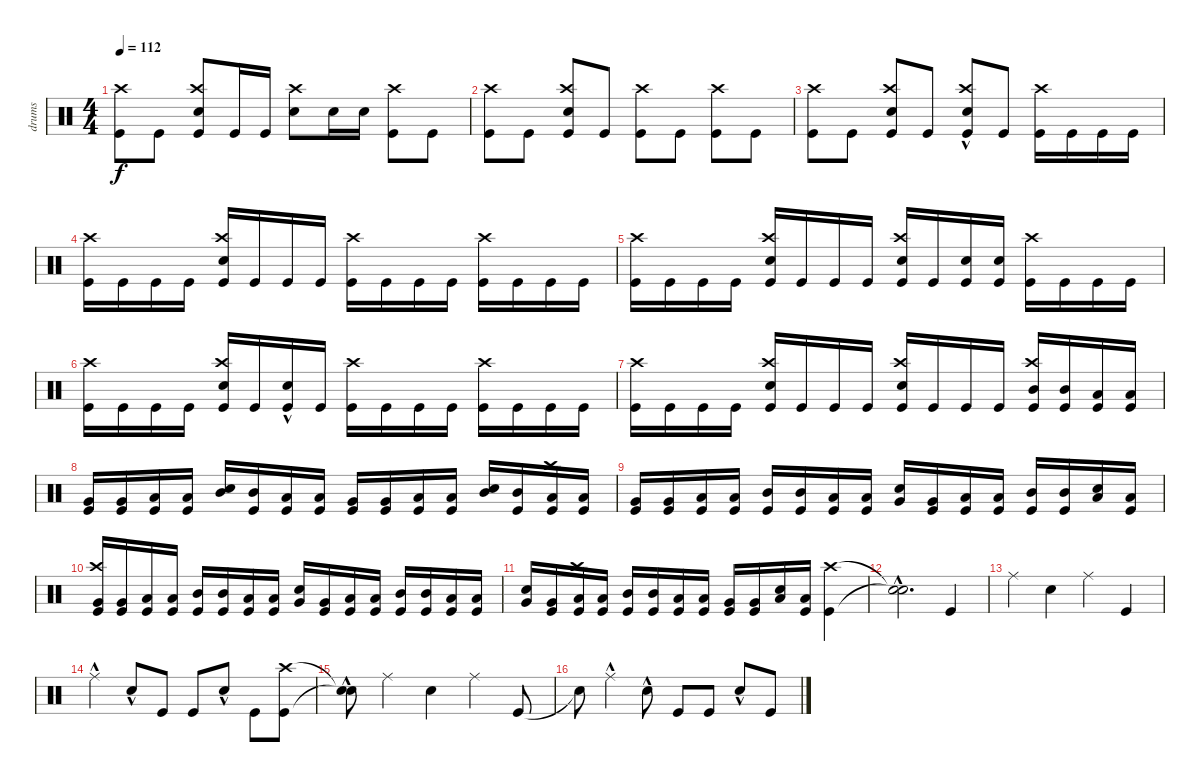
\track ("drums" "drums") {instrument percussion}
\staff {score}
\articulation defaults
\ts (4 4)
\tempo 112
\clef neutral
\ks c
("Kick (hit)" "Crash high (hit)").8{dy f} "Kick (hit)".8 ("Kick (hit)" "Snare (hit) 2" "Crash high (hit)").8 "Kick (hit)".16 "Kick (hit)".16 ("Snare (hit) 2" "Crash high (hit)").8 "Snare (hit) 2".16 "Snare (hit) 2".16 ("Kick (hit)" "Crash high (hit)").8 "Kick (hit)".8 |
("Kick (hit)" "Crash high (hit)").8 "Kick (hit)".8 ("Kick (hit)" "Snare (hit) 2" "Crash high (hit)").8 "Kick (hit)".8 ("Kick (hit)" "Crash high (hit)").8 "Kick (hit)".8 ("Kick (hit)" "Crash high (hit)").8 "Kick (hit)".8 |
("Kick (hit)" "Crash high (hit)").8 "Kick (hit)".8 ("Kick (hit)" "Snare (hit) 2" "Crash high (hit)").8 "Kick (hit)".8 ("Kick (hit)" "Snare (hit) 2"{hac} "Crash high (hit)").8 "Kick (hit)".8 ("Kick (hit)" "Crash high (hit)").16 "Kick (hit)".16 "Kick (hit)".16 "Kick (hit)".16 |
("Kick (hit)" "Crash high (hit)").16 "Kick (hit)".16 "Kick (hit)".16 "Kick (hit)".16 ("Kick (hit)" "Snare (hit) 2" "Crash high (hit)").16 "Kick (hit)".16 "Kick (hit)".16 "Kick (hit)".16 ("Kick (hit)" "Crash high (hit)").16 "Kick (hit)".16 "Kick (hit)".16 "Kick (hit)".16 ("Kick (hit)" "Crash high (hit)").16 "Kick (hit)".16 "Kick (hit)".16 "Kick (hit)".16 |
("Kick (hit)" "Crash high (hit)").16 "Kick (hit)".16 "Kick (hit)".16 "Kick (hit)".16 ("Kick (hit)" "Snare (hit) 2" "Crash high (hit)").16 "Kick (hit)".16 "Kick (hit)".16 "Kick (hit)".16 ("Kick (hit)" "Snare (hit) 2" "Crash high (hit)").16 "Kick (hit)".16 ("Kick (hit)" "Snare (hit) 2").16 ("Kick (hit)" "Snare (hit) 2").16 ("Kick (hit)" "Crash high (hit)").16 "Kick (hit)".16 "Kick (hit)".16 "Kick (hit)".16 |
("Kick (hit)" "Crash high (hit)").16 "Kick (hit)".16 "Kick (hit)".16 "Kick (hit)".16 ("Kick (hit)" "Snare (hit) 2" "Crash high (hit)").16 "Kick (hit)".16 ("Kick (hit)" "Snare (hit) 2"{hac}).16 "Kick (hit)".16 ("Kick (hit)" "Crash high (hit)").16 "Kick (hit)".16 "Kick (hit)".16 "Kick (hit)".16 ("Kick (hit)" "Crash high (hit)").16 "Kick (hit)".16 "Kick (hit)".16 "Kick (hit)".16 |
("Kick (hit)" "Crash high (hit)").16 "Kick (hit)".16 "Kick (hit)".16 "Kick (hit)".16 ("Kick (hit)" "Snare (hit) 2" "Crash high (hit)").16 "Kick (hit)".16 "Kick (hit)".16 "Kick (hit)".16 ("Kick (hit)" "Snare (hit) 2" "Crash high (hit)").16 "Kick (hit)".16 "Kick (hit)".16 "Kick (hit)".16 ("Kick (hit)" "Mid Tom (hit)" "Crash high (hit)").16 ("Kick (hit)" "Mid Tom (hit)").16 ("Kick (hit)" "Low Tom (hit)").16 ("Kick (hit)" "Low Tom (hit)").16 |
("Kick (hit)" "Very Low Tom (hit)").16 ("Kick (hit)" "Very Low Tom (hit)").16 ("Kick (hit)" "Low Floor Tom (hit)").16 ("Kick (hit)" "Low Floor Tom (hit)").16 ("Snare (hit) 2" "Mid Tom (hit)").16 ("Kick (hit)" "Mid Tom (hit)").16 ("Kick (hit)" "Low Tom (hit)").16 ("Kick (hit)" "Low Tom (hit)").16 ("Kick (hit)" "Very Low Tom (hit)").16 ("Kick (hit)" "Very Low Tom (hit)").16 ("Kick (hit)" "Low Floor Tom (hit)").16 ("Kick (hit)" "Low Floor Tom (hit)").16 ("Snare (hit) 2" "Mid Tom (hit)").16 ("Kick (hit)" "Mid Tom (hit)").16 ("Kick (hit)" "Low Tom (hit)" "Crash high (hit)").16 ("Kick (hit)" "Low Tom (hit)").16 |
("Kick (hit)" "Very Low Tom (hit)").16 ("Kick (hit)" "Very Low Tom (hit)").16 ("Kick (hit)" "Low Floor Tom (hit)").16 ("Kick (hit)" "Low Floor Tom (hit)").16 ("Kick (hit)" "Mid Tom (hit)").16 ("Kick (hit)" "Mid Tom (hit)").16 ("Kick (hit)" "Low Tom (hit)").16 ("Kick (hit)" "Low Tom (hit)").16 ("Snare (hit) 2" "Very Low Tom (hit)").16 ("Kick (hit)" "Very Low Tom (hit)").16 ("Kick (hit)" "Low Floor Tom (hit)").16 ("Kick (hit)" "Low Floor Tom (hit)").16 ("Kick (hit)" "Mid Tom (hit)").16 ("Kick (hit)" "Mid Tom (hit)").16 ("Snare (hit) 2" "Low Tom (hit)").16 ("Kick (hit)" "Low Tom (hit)").16 |
("Kick (hit)" "Very Low Tom (hit)" "Crash high (hit)").16 ("Kick (hit)" "Very Low Tom (hit)").16 ("Kick (hit)" "Low Floor Tom (hit)").16 ("Kick (hit)" "Low Floor Tom (hit)").16 ("Kick (hit)" "Mid Tom (hit)").16 ("Kick (hit)" "Mid Tom (hit)").16 ("Kick (hit)" "Low Tom (hit)").16 ("Kick (hit)" "Low Tom (hit)").16 ("Snare (hit) 2" "Very Low Tom (hit)").16 ("Kick (hit)" "Very Low Tom (hit)").16 ("Kick (hit)" "Low Floor Tom (hit)").16 ("Kick (hit)" "Low Floor Tom (hit)").16 ("Kick (hit)" "Mid Tom (hit)").16 ("Kick (hit)" "Mid Tom (hit)").16 ("Kick (hit)" "Low Tom (hit)").16 ("Kick (hit)" "Low Tom (hit)").16 |
("Snare (hit) 2" "Very Low Tom (hit)").16 ("Kick (hit)" "Very Low Tom (hit)").16 ("Kick (hit)" "Low Floor Tom (hit)" "Crash high (hit)").16 ("Kick (hit)" "Low Floor Tom (hit)").16 ("Kick (hit)" "Mid Tom (hit)").16 ("Kick (hit)" "Mid Tom (hit)").16 ("Kick (hit)" "Low Tom (hit)").16 ("Kick (hit)" "Low Tom (hit)").16 ("Kick (hit)" "Very Low Tom (hit)").16 ("Kick (hit)" "Very Low Tom (hit)").16 ("Snare (hit) 2" "Low Floor Tom (hit)").16 ("Kick (hit)" "Low Floor Tom (hit)").16 ("Kick (hit)" "Crash high (hit)").4 |
("Snare (hit)"{hac t} "Snare (hit)"{t}).2{d} "Kick (hit)".4 |
"Ride (middle)".4 "Snare (hit) 2".4 "Ride (middle)".4 "Kick (hit)".4 |
"Ride (middle)"{hac}.4 "Snare (hit) 2"{hac}.8 "Kick (hit)".8 "Kick (hit)".8 "Snare (hit) 2"{hac}.8 "Kick (hit)".8 ("Kick (hit)" "Crash high (hit)").8 |
("Snare (hit)"{hac t} "Snare (hit)"{t}).8 "Ride (middle)".4 "Snare (hit) 2".4 "Ride (middle)".4 "Kick (hit)".8 |
"Snare (hit)"{t}.8 "Ride (middle)"{hac}.4 "Snare (hit) 2"{hac}.8 "Kick (hit)".8 "Kick (hit)".8 "Snare (hit) 2"{hac}.8 "Kick (hit)".8
